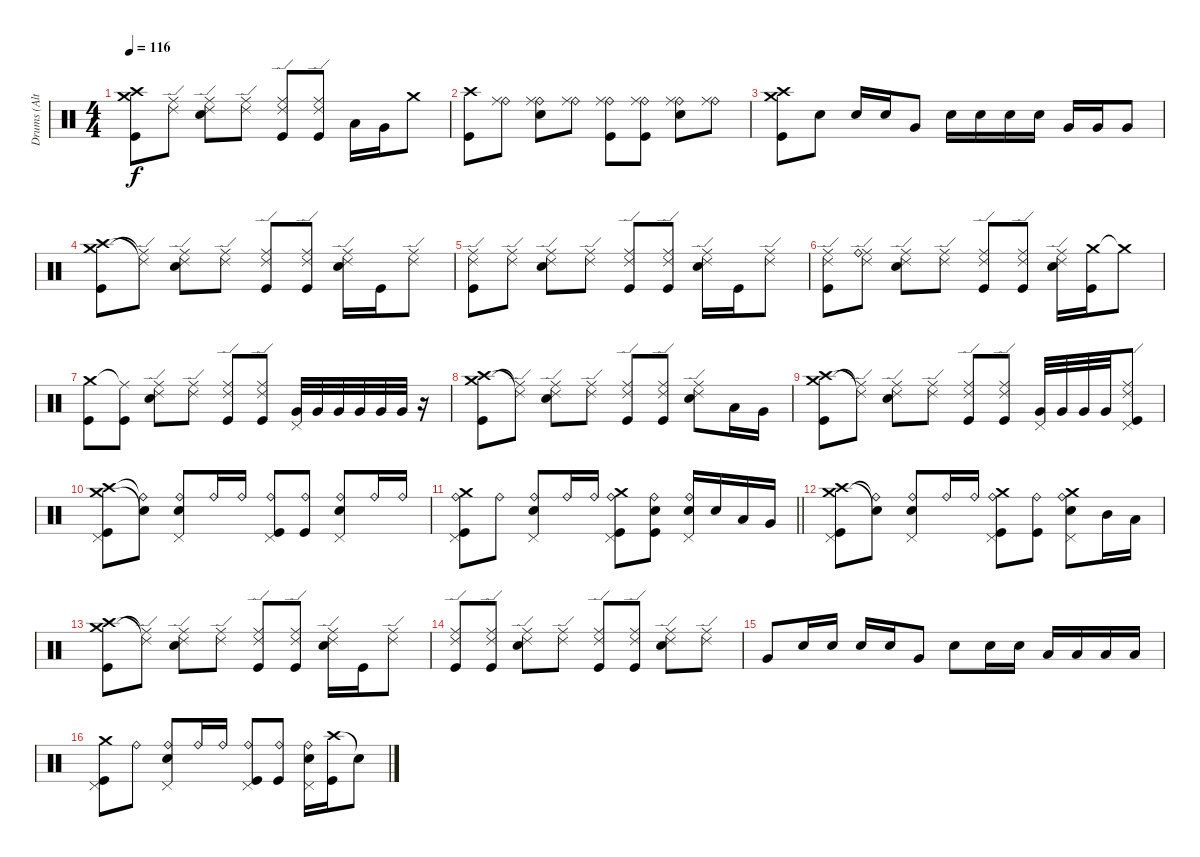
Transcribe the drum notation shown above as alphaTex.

\track ("Drums (Alternate - NOT ON MASTER)" "Drums (Alt") {mute instrument percussion}
\staff {score}
\articulation defaults
\ts (4 4)
\tempo 116
\clef neutral
\ks c
("Crash medium (hit)" "Crash high (hit)" "Kick (hit)").8{dy f} ("Ride (middle)" "Ride (edge) 2").8 ("Ride (middle)" "Ride (edge) 2" "Snare (hit) 2").8 ("Ride (middle)" "Ride (edge) 2").8 ("Ride (middle)" "Ride (edge) 2" "Kick (hit)").8 ("Ride (middle)" "Ride (edge) 2" "Kick (hit)").8 "Low Tom (hit)".16 "Very Low Tom (hit)".16 "Crash medium (hit)".8 |
("Crash high (hit)" "Kick (hit)").8 ("Ride (bell)" "Ride (middle)").8 ("Ride (bell)" "Ride (middle)" "Snare (hit) 2").8 ("Ride (bell)" "Ride (middle)").8 ("Ride (bell)" "Ride (middle)" "Kick (hit)").8 ("Ride (bell)" "Ride (middle)" "Kick (hit)").8 ("Ride (bell)" "Ride (middle)" "Snare (hit) 2").8 ("Ride (bell)" "Ride (middle)").8 |
("Crash medium (hit)" "Crash high (hit)" "Kick (hit)").8 "Snare (hit) 2".8 "Snare (hit) 2".16 "Snare (hit) 2".16 "Very Low Tom (hit)".8 "Snare (hit) 2".16 "Snare (hit) 2".16 "Snare (hit) 2".16 "Snare (hit) 2".16 "Very Low Tom (hit)".16 "Very Low Tom (hit)".16 "Very Low Tom (hit)".8 |
("Crash medium (hit)" "Crash high (hit)" "Kick (hit)").8 ("Ride (middle)"{t} "Ride (edge) 2"{t}).8 ("Ride (middle)" "Ride (edge) 2" "Snare (hit) 2").8 ("Ride (middle)" "Ride (edge) 2").8 ("Ride (middle)" "Ride (edge) 2" "Kick (hit)").8 ("Ride (middle)" "Ride (edge) 2" "Kick (hit)").8 ("Ride (middle)" "Ride (edge) 2" "Snare (hit) 2").16 "Kick (hit)".16 ("Ride (middle)" "Ride (edge) 2").8 |
("Ride (middle)" "Ride (edge) 2" "Kick (hit)").8 ("Ride (middle)" "Ride (edge) 2").8 ("Ride (middle)" "Ride (edge) 2" "Snare (hit) 2").8 ("Ride (middle)" "Ride (edge) 2").8 ("Ride (middle)" "Ride (edge) 2" "Kick (hit)").8 ("Ride (middle)" "Ride (edge) 2" "Kick (hit)").8 ("Ride (middle)" "Ride (edge) 2" "Snare (hit) 2").16 "Kick (hit)".16 ("Ride (middle)" "Ride (edge) 2").8 |
("Ride (middle)" "Ride (edge) 2" "Kick (hit)").8 ("Ride (middle)" "Ride (edge) 2" "Ride (bell)").8 ("Ride (middle)" "Ride (edge) 2" "Snare (hit) 2").8 ("Ride (middle)" "Ride (edge) 2").8 ("Ride (middle)" "Ride (edge) 2" "Kick (hit)").8 ("Ride (middle)" "Ride (edge) 2" "Kick (hit)").8 ("Ride (middle)" "Ride (edge) 2" "Snare (hit) 2").16 ("Crash medium (hit)" "Kick (hit)").16 "Crash medium (hit)"{t}.8 |
("Crash medium (hit)" "Kick (hit)").8 ("Ride (middle)"{t} "Kick (hit)").8 ("Ride (middle)" "Ride (edge) 2" "Snare (hit) 2").8 ("Ride (middle)" "Ride (edge) 2").8 ("Ride (middle)" "Ride (edge) 2" "Kick (hit)").8 ("Ride (middle)" "Ride (edge) 2" "Kick (hit)").8 ("Very Low Tom (hit)" "Pedal Hi-Hat (hit)").32 "Very Low Tom (hit)".32 "Very Low Tom (hit)".32 "Very Low Tom (hit)".32 "Very Low Tom (hit)".32 "Very Low Tom (hit)".32 r.16 |
("Crash medium (hit)" "Crash high (hit)" "Kick (hit)").8 ("Ride (middle)"{t} "Ride (edge) 2"{t}).8 ("Ride (middle)" "Ride (edge) 2" "Snare (hit) 2").8 ("Ride (middle)" "Ride (edge) 2").8 ("Ride (middle)" "Ride (edge) 2" "Kick (hit)").8 ("Ride (middle)" "Ride (edge) 2" "Kick (hit)").8 ("Ride (middle)" "Ride (edge) 2" "Snare (hit) 2").8 "Low Tom (hit)".16 "Very Low Tom (hit)".16 |
("Crash medium (hit)" "Crash high (hit)" "Kick (hit)").8 ("Ride (middle)"{t} "Ride (edge) 2"{t}).8 ("Ride (middle)" "Ride (edge) 2" "Snare (hit) 2").8 ("Ride (middle)" "Ride (edge) 2").8 ("Ride (middle)" "Ride (edge) 2" "Kick (hit)").8 ("Ride (middle)" "Ride (edge) 2" "Kick (hit)").8 ("Very Low Tom (hit)" "Pedal Hi-Hat (hit)").32 "Very Low Tom (hit)".32 "Very Low Tom (hit)".32 "Very Low Tom (hit)".32 ("Ride (edge) 2" "Ride (middle)" "Pedal Hi-Hat (hit)" "Kick (hit)").8 |
("Crash high (hit)" "Crash medium (hit)" "Pedal Hi-Hat (hit)" "Kick (hit)").8 ("Ride (bell)"{t} "Snare (hit)"{t}).8 ("Ride (bell)" "Snare (hit) 2" "Pedal Hi-Hat (hit)").8 "Ride (bell)".16 "Ride (bell)".16 ("Ride (bell)" "Pedal Hi-Hat (hit)" "Kick (hit)").8 ("Ride (bell)" "Kick (hit)").8 ("Ride (bell)" "Snare (hit) 2" "Pedal Hi-Hat (hit)").8 "Ride (bell)".16 "Ride (bell)".16 |
\barLineRight lightlight
("Ride (bell)" "Crash medium (hit)" "Pedal Hi-Hat (hit)" "Kick (hit)").8 "Ride (bell)".8 ("Ride (bell)" "Snare (hit) 2" "Pedal Hi-Hat (hit)").8 "Ride (bell)".16 "Ride (bell)".16 ("Ride (bell)" "Crash medium (hit)" "Pedal Hi-Hat (hit)" "Kick (hit)").8 ("Ride (bell)" "Snare (hit) 2" "Kick (hit)").8 ("Ride (bell)" "Snare (hit) 2" "Pedal Hi-Hat (hit)").16 "Snare (hit) 2".16 "Low Tom (hit)".16 "Very Low Tom (hit)".16 |
("Crash medium (hit)" "Crash high (hit)" "Pedal Hi-Hat (hit)" "Kick (hit)").8 ("Ride (bell)"{t} "Snare (hit)"{t}).8 ("Ride (bell)" "Snare (hit) 2" "Pedal Hi-Hat (hit)").8 "Ride (bell)".16 "Ride (bell)".16 ("Ride (bell)" "Crash medium (hit)" "Pedal Hi-Hat (hit)" "Kick (hit)").8 ("Ride (bell)" "Kick (hit)").8 ("Ride (bell)" "Crash medium (hit)" "Snare (hit) 2" "Pedal Hi-Hat (hit)").8 "Mid Tom (hit)".16 "Low Tom (hit)".16 |
("Crash medium (hit)" "Crash high (hit)" "Kick (hit)").8 ("Ride (middle)"{t} "Ride (edge) 2"{t}).8 ("Ride (middle)" "Ride (edge) 2" "Snare (hit) 2").8 ("Ride (middle)" "Ride (edge) 2").8 ("Ride (middle)" "Ride (edge) 2" "Kick (hit)").8 ("Ride (middle)" "Ride (edge) 2" "Kick (hit)").8 ("Ride (middle)" "Ride (edge) 2" "Snare (hit) 2").16 "Kick (hit)".16 ("Ride (middle)" "Ride (edge) 2").8 |
("Ride (middle)" "Ride (edge) 2" "Kick (hit)").8 ("Ride (middle)" "Ride (edge) 2" "Kick (hit)").8 ("Ride (middle)" "Ride (edge) 2" "Snare (hit) 2").8 ("Ride (middle)" "Ride (edge) 2").8 ("Ride (middle)" "Ride (edge) 2" "Kick (hit)").8 ("Ride (middle)" "Ride (edge) 2" "Kick (hit)").8 ("Ride (middle)" "Ride (edge) 2" "Snare (hit) 2").8 ("Ride (middle)" "Ride (edge) 2").8 |
"Very Low Tom (hit)".8 "Snare (hit) 2".16 "Snare (hit) 2".16 "Snare (hit) 2".16 "Snare (hit) 2".16 "Very Low Tom (hit)".8 "Snare (hit) 2".8 "Snare (hit) 2".16 "Snare (hit) 2".16 "Low Floor Tom (hit)".16 "Low Floor Tom (hit)".16 "Low Floor Tom (hit)".16 "Low Floor Tom (hit)".16 |
("Crash medium (hit)" "Pedal Hi-Hat (hit)" "Kick (hit)").8 "Ride (bell)".8 ("Ride (bell)" "Snare (hit) 2" "Pedal Hi-Hat (hit)").8 "Ride (bell)".16 "Ride (bell)".16 ("Ride (bell)" "Pedal Hi-Hat (hit)" "Kick (hit)").8 ("Ride (bell)" "Kick (hit)").8 ("Ride (bell)" "Snare (hit) 2" "Pedal Hi-Hat (hit)").16 ("Crash high (hit)" "Kick (hit)").16 "Snare (hit)"{t}.8
